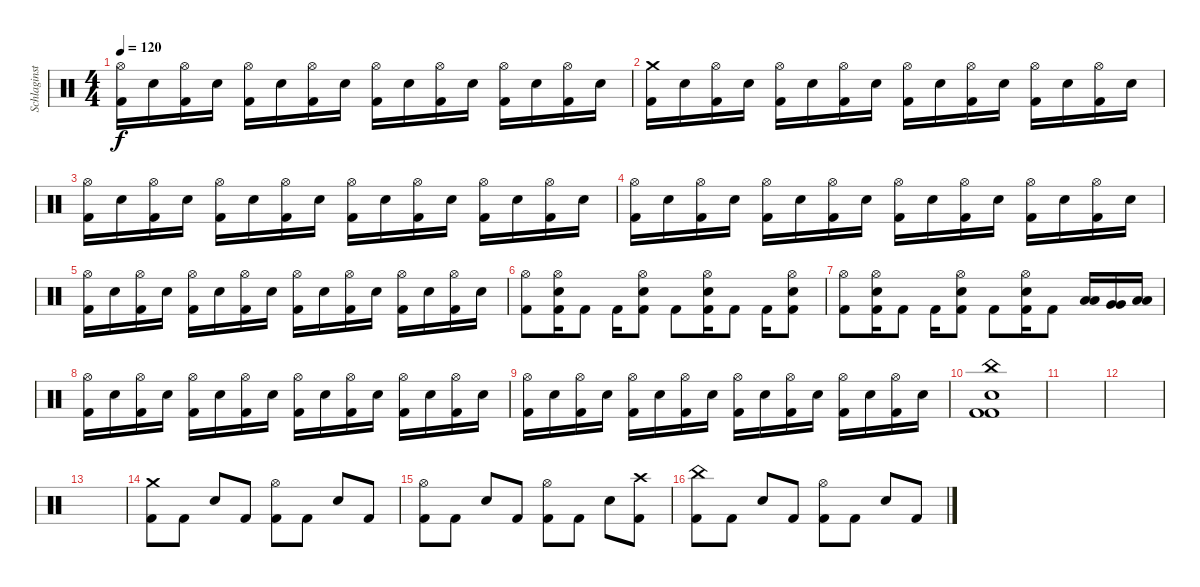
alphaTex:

\track ("Schlaginstrumente - Auswahl" "Schlaginst") {instrument percussion}
\staff {score}
\articulation defaults
\ts (4 4)
\tempo 120
\clef neutral
\ks c
("Hi-Hat (open)" "Kick (hit) 2").16{dy f} "Electric Snare (hit)".16 ("Hi-Hat (open)" "Kick (hit) 2").16 "Electric Snare (hit)".16 ("Hi-Hat (open)" "Kick (hit) 2").16 "Electric Snare (hit)".16 ("Hi-Hat (open)" "Kick (hit) 2").16 "Electric Snare (hit)".16 ("Hi-Hat (open)" "Kick (hit) 2").16 "Electric Snare (hit)".16 ("Hi-Hat (open)" "Kick (hit) 2").16 "Electric Snare (hit)".16 ("Hi-Hat (open)" "Kick (hit) 2").16 "Electric Snare (hit)".16 ("Hi-Hat (open)" "Kick (hit) 2").16 "Electric Snare (hit)".16 |
("Crash medium (hit)" "Kick (hit) 2").16 "Electric Snare (hit)".16 ("Hi-Hat (open)" "Kick (hit) 2").16 "Electric Snare (hit)".16 ("Hi-Hat (open)" "Kick (hit) 2").16 "Electric Snare (hit)".16 ("Hi-Hat (open)" "Kick (hit) 2").16 "Electric Snare (hit)".16 ("Hi-Hat (open)" "Kick (hit) 2").16 "Electric Snare (hit)".16 ("Hi-Hat (open)" "Kick (hit) 2").16 "Electric Snare (hit)".16 ("Hi-Hat (open)" "Kick (hit) 2").16 "Electric Snare (hit)".16 ("Hi-Hat (open)" "Kick (hit) 2").16 "Electric Snare (hit)".16 |
("Hi-Hat (open)" "Kick (hit) 2").16 "Electric Snare (hit)".16 ("Hi-Hat (open)" "Kick (hit) 2").16 "Electric Snare (hit)".16 ("Hi-Hat (open)" "Kick (hit) 2").16 "Electric Snare (hit)".16 ("Hi-Hat (open)" "Kick (hit) 2").16 "Electric Snare (hit)".16 ("Hi-Hat (open)" "Kick (hit) 2").16 "Electric Snare (hit)".16 ("Hi-Hat (open)" "Kick (hit) 2").16 "Electric Snare (hit)".16 ("Hi-Hat (open)" "Kick (hit) 2").16 "Electric Snare (hit)".16 ("Hi-Hat (open)" "Kick (hit) 2").16 "Electric Snare (hit)".16 |
("Hi-Hat (open)" "Kick (hit) 2").16 "Electric Snare (hit)".16 ("Hi-Hat (open)" "Kick (hit) 2").16 "Electric Snare (hit)".16 ("Hi-Hat (open)" "Kick (hit) 2").16 "Electric Snare (hit)".16 ("Hi-Hat (open)" "Kick (hit) 2").16 "Electric Snare (hit)".16 ("Hi-Hat (open)" "Kick (hit) 2").16 "Electric Snare (hit)".16 ("Hi-Hat (open)" "Kick (hit) 2").16 "Electric Snare (hit)".16 ("Hi-Hat (open)" "Kick (hit) 2").16 "Electric Snare (hit)".16 ("Hi-Hat (open)" "Kick (hit) 2").16 "Electric Snare (hit)".16 |
("Hi-Hat (open)" "Kick (hit) 2").16 "Electric Snare (hit)".16 ("Hi-Hat (open)" "Kick (hit) 2").16 "Electric Snare (hit)".16 ("Hi-Hat (open)" "Kick (hit) 2").16 "Electric Snare (hit)".16 ("Hi-Hat (open)" "Kick (hit) 2").16 "Electric Snare (hit)".16 ("Hi-Hat (open)" "Kick (hit) 2").16 "Electric Snare (hit)".16 ("Hi-Hat (open)" "Kick (hit) 2").16 "Electric Snare (hit)".16 ("Hi-Hat (open)" "Kick (hit) 2").16 "Electric Snare (hit)".16 ("Hi-Hat (open)" "Kick (hit) 2").16 "Electric Snare (hit)".16 |
("Hi-Hat (open)" "Kick (hit) 2").8 ("Hi-Hat (open)" "Electric Snare (hit)" "Kick (hit) 2").16 "Kick (hit) 2".8 "Kick (hit) 2".16 ("Hi-Hat (open)" "Electric Snare (hit)" "Kick (hit) 2").8 "Kick (hit) 2".8 ("Hi-Hat (open)" "Electric Snare (hit)" "Kick (hit) 2").16 "Kick (hit) 2".8 "Kick (hit) 2".16 ("Hi-Hat (open)" "Electric Snare (hit)" "Kick (hit) 2").8 |
("Hi-Hat (open)" "Kick (hit) 2").8 ("Hi-Hat (open)" "Electric Snare (hit)" "Kick (hit) 2").16 "Kick (hit) 2".8 "Kick (hit) 2".16 ("Hi-Hat (open)" "Electric Snare (hit)" "Kick (hit) 2").8 "Kick (hit) 2".8 ("Hi-Hat (open)" "Electric Snare (hit)" "Kick (hit) 2").16 "Kick (hit) 2".8 ("Low Tom (hit)" "Low Tom (hit)").16 ("Very Low Tom (hit)" "Very Low Tom (hit)").16 ("Low Floor Tom (hit)" "Low Floor Tom (hit)").16 |
("Hi-Hat (open)" "Kick (hit) 2").16 "Electric Snare (hit)".16 ("Hi-Hat (open)" "Kick (hit) 2").16 "Electric Snare (hit)".16 ("Hi-Hat (open)" "Kick (hit) 2").16 "Electric Snare (hit)".16 ("Hi-Hat (open)" "Kick (hit) 2").16 "Electric Snare (hit)".16 ("Hi-Hat (open)" "Kick (hit) 2").16 "Electric Snare (hit)".16 ("Hi-Hat (open)" "Kick (hit) 2").16 "Electric Snare (hit)".16 ("Hi-Hat (open)" "Kick (hit) 2").16 "Electric Snare (hit)".16 ("Hi-Hat (open)" "Kick (hit) 2").16 "Electric Snare (hit)".16 |
("Hi-Hat (open)" "Kick (hit) 2").16 "Electric Snare (hit)".16 ("Hi-Hat (open)" "Kick (hit) 2").16 "Electric Snare (hit)".16 ("Hi-Hat (open)" "Kick (hit) 2").16 "Electric Snare (hit)".16 ("Hi-Hat (open)" "Kick (hit) 2").16 "Electric Snare (hit)".16 ("Hi-Hat (open)" "Kick (hit) 2").16 "Electric Snare (hit)".16 ("Hi-Hat (open)" "Kick (hit) 2").16 "Electric Snare (hit)".16 ("Hi-Hat (open)" "Kick (hit) 2").16 "Electric Snare (hit)".16 ("Hi-Hat (open)" "Kick (hit) 2").16 "Electric Snare (hit)".16 |
("Electric Snare (hit)" "China (hit)" "Kick (hit) 2" "Kick (hit) 2").1 |
|
|
|
("Crash medium (hit)" "Kick (hit) 2").8 "Kick (hit) 2".8 "Electric Snare (hit)".8 "Kick (hit) 2".8 ("Hi-Hat (open)" "Kick (hit) 2").8 "Kick (hit) 2".8 "Electric Snare (hit)".8 "Kick (hit) 2".8 |
("Hi-Hat (open)" "Kick (hit) 2").8 "Kick (hit) 2".8 "Electric Snare (hit)".8 "Kick (hit) 2".8 ("Hi-Hat (open)" "Kick (hit) 2").8 "Kick (hit) 2".8 "Electric Snare (hit)".8 ("Crash high (hit)" "Kick (hit) 2").8 |
("China (hit)" "Kick (hit) 2").8 "Kick (hit) 2".8 "Electric Snare (hit)".8 "Kick (hit) 2".8 ("Hi-Hat (open)" "Kick (hit) 2").8 "Kick (hit) 2".8 "Electric Snare (hit)".8 "Kick (hit) 2".8
